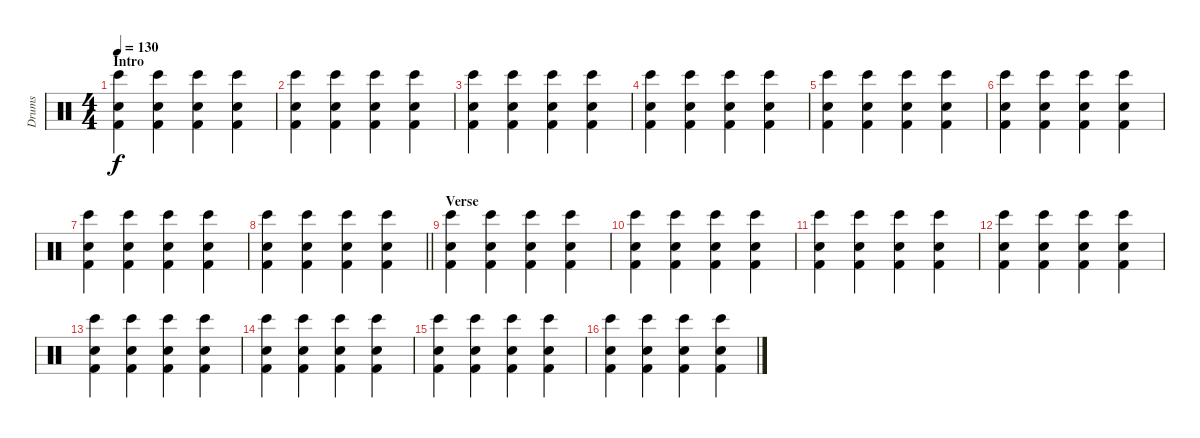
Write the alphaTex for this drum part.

\track ("Drums" "Drums") {instrument percussion}
\staff {score}
\articulation defaults
\ts (4 4)
\section ("" "Intro")
\tempo 130
\clef neutral
\ks c
("Electric Snare (hit)" "Kick (hit) 2" "Bongo High (hit)").4{dy f} ("Electric Snare (hit)" "Kick (hit) 2" "Bongo High (hit)").4 ("Electric Snare (hit)" "Kick (hit) 2" "Bongo High (hit)").4 ("Electric Snare (hit)" "Kick (hit) 2" "Bongo High (hit)").4 |
("Electric Snare (hit)" "Kick (hit) 2" "Bongo High (hit)").4 ("Electric Snare (hit)" "Kick (hit) 2" "Bongo High (hit)").4 ("Electric Snare (hit)" "Kick (hit) 2" "Bongo High (hit)").4 ("Electric Snare (hit)" "Kick (hit) 2" "Bongo High (hit)").4 |
("Electric Snare (hit)" "Kick (hit) 2" "Bongo High (hit)").4 ("Electric Snare (hit)" "Kick (hit) 2" "Bongo High (hit)").4 ("Electric Snare (hit)" "Kick (hit) 2" "Bongo High (hit)").4 ("Electric Snare (hit)" "Kick (hit) 2" "Bongo High (hit)").4 |
("Electric Snare (hit)" "Kick (hit) 2" "Bongo High (hit)").4 ("Electric Snare (hit)" "Kick (hit) 2" "Bongo High (hit)").4 ("Electric Snare (hit)" "Kick (hit) 2" "Bongo High (hit)").4 ("Electric Snare (hit)" "Kick (hit) 2" "Bongo High (hit)").4 |
("Electric Snare (hit)" "Kick (hit) 2" "Bongo High (hit)").4 ("Electric Snare (hit)" "Kick (hit) 2" "Bongo High (hit)").4 ("Electric Snare (hit)" "Kick (hit) 2" "Bongo High (hit)").4 ("Electric Snare (hit)" "Kick (hit) 2" "Bongo High (hit)").4 |
("Electric Snare (hit)" "Kick (hit) 2" "Bongo High (hit)").4 ("Electric Snare (hit)" "Kick (hit) 2" "Bongo High (hit)").4 ("Electric Snare (hit)" "Kick (hit) 2" "Bongo High (hit)").4 ("Electric Snare (hit)" "Kick (hit) 2" "Bongo High (hit)").4 |
("Electric Snare (hit)" "Kick (hit) 2" "Bongo High (hit)").4 ("Electric Snare (hit)" "Kick (hit) 2" "Bongo High (hit)").4 ("Electric Snare (hit)" "Kick (hit) 2" "Bongo High (hit)").4 ("Electric Snare (hit)" "Kick (hit) 2" "Bongo High (hit)").4 |
\barLineRight lightlight
("Electric Snare (hit)" "Kick (hit) 2" "Bongo High (hit)").4 ("Electric Snare (hit)" "Kick (hit) 2" "Bongo High (hit)").4 ("Electric Snare (hit)" "Kick (hit) 2" "Bongo High (hit)").4 ("Electric Snare (hit)" "Kick (hit) 2" "Bongo High (hit)").4 |
\section ("" "Verse")
("Electric Snare (hit)" "Kick (hit) 2" "Bongo High (hit)").4 ("Electric Snare (hit)" "Kick (hit) 2" "Bongo High (hit)").4 ("Electric Snare (hit)" "Kick (hit) 2" "Bongo High (hit)").4 ("Electric Snare (hit)" "Kick (hit) 2" "Bongo High (hit)").4 |
("Electric Snare (hit)" "Kick (hit) 2" "Bongo High (hit)").4 ("Electric Snare (hit)" "Kick (hit) 2" "Bongo High (hit)").4 ("Electric Snare (hit)" "Kick (hit) 2" "Bongo High (hit)").4 ("Electric Snare (hit)" "Kick (hit) 2" "Bongo High (hit)").4 |
("Electric Snare (hit)" "Kick (hit) 2" "Bongo High (hit)").4 ("Electric Snare (hit)" "Kick (hit) 2" "Bongo High (hit)").4 ("Electric Snare (hit)" "Kick (hit) 2" "Bongo High (hit)").4 ("Electric Snare (hit)" "Kick (hit) 2" "Bongo High (hit)").4 |
("Electric Snare (hit)" "Kick (hit) 2" "Bongo High (hit)").4 ("Electric Snare (hit)" "Kick (hit) 2" "Bongo High (hit)").4 ("Electric Snare (hit)" "Kick (hit) 2" "Bongo High (hit)").4 ("Electric Snare (hit)" "Kick (hit) 2" "Bongo High (hit)").4 |
("Electric Snare (hit)" "Kick (hit) 2" "Bongo High (hit)").4 ("Electric Snare (hit)" "Kick (hit) 2" "Bongo High (hit)").4 ("Electric Snare (hit)" "Kick (hit) 2" "Bongo High (hit)").4 ("Electric Snare (hit)" "Kick (hit) 2" "Bongo High (hit)").4 |
("Electric Snare (hit)" "Kick (hit) 2" "Bongo High (hit)").4 ("Electric Snare (hit)" "Kick (hit) 2" "Bongo High (hit)").4 ("Electric Snare (hit)" "Kick (hit) 2" "Bongo High (hit)").4 ("Electric Snare (hit)" "Kick (hit) 2" "Bongo High (hit)").4 |
("Electric Snare (hit)" "Kick (hit) 2" "Bongo High (hit)").4 ("Electric Snare (hit)" "Kick (hit) 2" "Bongo High (hit)").4 ("Electric Snare (hit)" "Kick (hit) 2" "Bongo High (hit)").4 ("Electric Snare (hit)" "Kick (hit) 2" "Bongo High (hit)").4 |
("Electric Snare (hit)" "Kick (hit) 2" "Bongo High (hit)").4 ("Electric Snare (hit)" "Kick (hit) 2" "Bongo High (hit)").4 ("Electric Snare (hit)" "Kick (hit) 2" "Bongo High (hit)").4 ("Electric Snare (hit)" "Kick (hit) 2" "Bongo High (hit)").4
